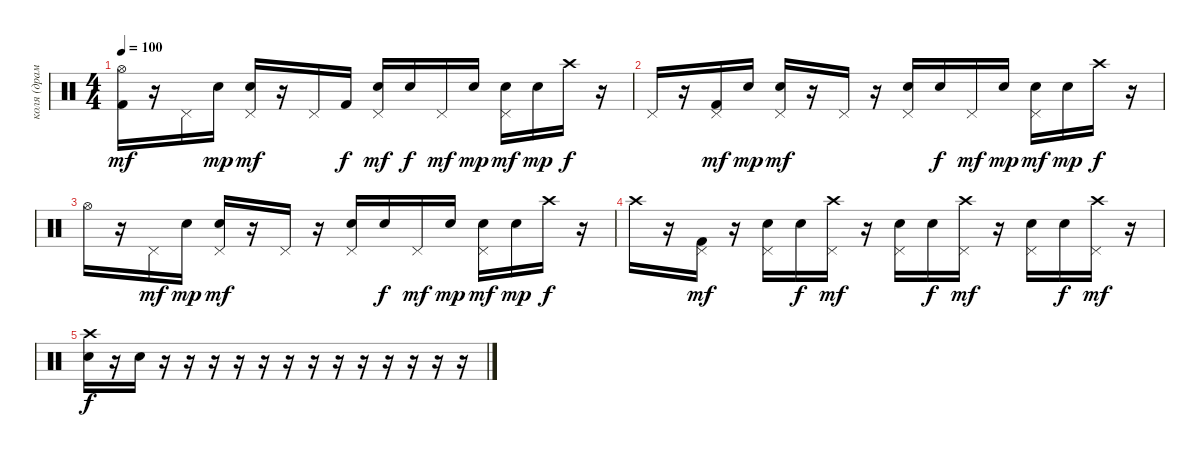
\track ("коля (драммы)" "коля (драм") {instrument percussion}
\staff {score}
\articulation defaults
\ts (4 4)
\tempo 100
\clef neutral
\ks c
("Hi-Hat (open)" "Kick (hit) 2").16{dy mf} r.16 "Pedal Hi-Hat (hit)".16 "Snare (hit) 2".16{dy mp} ("Snare (hit) 2" "Pedal Hi-Hat (hit)").16{dy mf} r.16 "Pedal Hi-Hat (hit)".16 "Kick (hit) 2".16{dy f} ("Snare (hit) 2" "Pedal Hi-Hat (hit)").16{dy mf} "Snare (hit) 2".16{dy f} "Pedal Hi-Hat (hit)".16{dy mf} "Snare (hit) 2".16{dy mp} ("Snare (hit) 2" "Pedal Hi-Hat (hit)").16{dy mf} "Snare (hit) 2".16{dy mp} "Crash high (hit)".16{dy f} r.16 |
"Pedal Hi-Hat (hit)".16 r.16 ("Pedal Hi-Hat (hit)" "Kick (hit) 2").16{dy mf} "Snare (hit) 2".16{dy mp} ("Snare (hit) 2" "Pedal Hi-Hat (hit)").16{dy mf} r.16 "Pedal Hi-Hat (hit)".16 r.16 ("Snare (hit) 2" "Pedal Hi-Hat (hit)").16 "Snare (hit) 2".16{dy f} "Pedal Hi-Hat (hit)".16{dy mf} "Snare (hit) 2".16{dy mp} ("Snare (hit) 2" "Pedal Hi-Hat (hit)").16{dy mf} "Snare (hit) 2".16{dy mp} "Crash high (hit)".16{dy f} r.16 |
"Hi-Hat (open)".16 r.16 "Pedal Hi-Hat (hit)".16{dy mf} "Snare (hit) 2".16{dy mp} ("Snare (hit) 2" "Pedal Hi-Hat (hit)").16{dy mf} r.16 "Pedal Hi-Hat (hit)".16 r.16 ("Snare (hit) 2" "Pedal Hi-Hat (hit)").16 "Snare (hit) 2".16{dy f} "Pedal Hi-Hat (hit)".16{dy mf} "Snare (hit) 2".16{dy mp} ("Snare (hit) 2" "Pedal Hi-Hat (hit)").16{dy mf} "Snare (hit) 2".16{dy mp} "Crash high (hit)".16{dy f} r.16 |
"Crash high (hit)".16 r.16 ("Pedal Hi-Hat (hit)" "Kick (hit) 2").16{dy mf} r.16 ("Snare (hit) 2" "Pedal Hi-Hat (hit)").16 "Snare (hit) 2".16{dy f} ("Crash high (hit)" "Pedal Hi-Hat (hit)").16{dy mf} r.16 ("Snare (hit) 2" "Pedal Hi-Hat (hit)").16 "Snare (hit) 2".16{dy f} ("Crash high (hit)" "Pedal Hi-Hat (hit)").16{dy mf} r.16 ("Snare (hit) 2" "Pedal Hi-Hat (hit)").16 "Snare (hit) 2".16{dy f} ("Crash high (hit)" "Pedal Hi-Hat (hit)").16{dy mf} r.16 |
("Snare (hit) 2" "Crash high (hit)").16{dy f} r.16 "Snare (hit) 2".16 r.16 r.16 r.16 r.16 r.16 r.16 r.16 r.16 r.16 r.16 r.16 r.16 r.16
